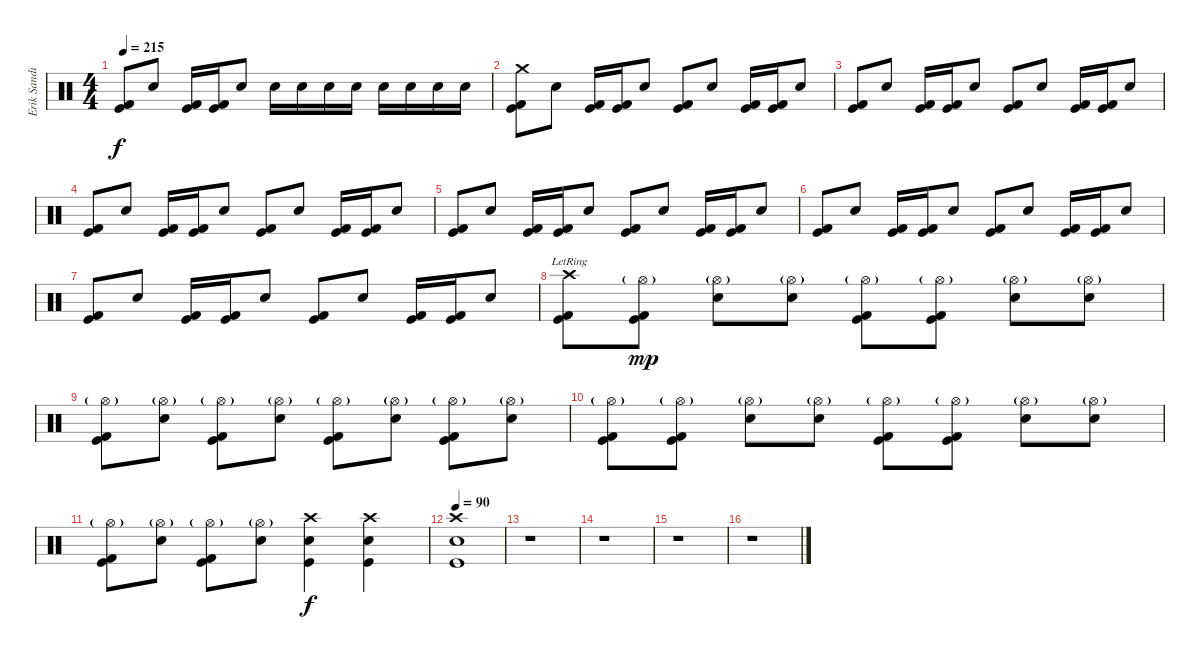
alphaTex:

\track ("Erik Sandin" "Erik Sandi") {instrument percussion}
\staff {score}
\articulation defaults
\ts (4 4)
\tempo 215
\clef neutral
\ks c
("Kick (hit) 2" "Kick (hit)").8{dy f} "Electric Snare (hit)".8 ("Kick (hit) 2" "Kick (hit)").16 ("Kick (hit) 2" "Kick (hit)").16 "Electric Snare (hit)".8 "Electric Snare (hit)".16 "Electric Snare (hit)".16 "Electric Snare (hit)".16 "Electric Snare (hit)".16 "Electric Snare (hit)".16 "Electric Snare (hit)".16 "Electric Snare (hit)".16 "Electric Snare (hit)".16 |
("Crash medium (hit)" "Kick (hit) 2" "Kick (hit)").8 "Electric Snare (hit)".8 ("Kick (hit) 2" "Kick (hit)").16 ("Kick (hit) 2" "Kick (hit)").16 "Electric Snare (hit)".8 ("Kick (hit) 2" "Kick (hit)").8 "Electric Snare (hit)".8 ("Kick (hit) 2" "Kick (hit)").16 ("Kick (hit) 2" "Kick (hit)").16 "Electric Snare (hit)".8 |
("Kick (hit) 2" "Kick (hit)").8 "Electric Snare (hit)".8 ("Kick (hit) 2" "Kick (hit)").16 ("Kick (hit) 2" "Kick (hit)").16 "Electric Snare (hit)".8 ("Kick (hit) 2" "Kick (hit)").8 "Electric Snare (hit)".8 ("Kick (hit) 2" "Kick (hit)").16 ("Kick (hit) 2" "Kick (hit)").16 "Electric Snare (hit)".8 |
("Kick (hit) 2" "Kick (hit)").8 "Electric Snare (hit)".8 ("Kick (hit) 2" "Kick (hit)").16 ("Kick (hit) 2" "Kick (hit)").16 "Electric Snare (hit)".8 ("Kick (hit) 2" "Kick (hit)").8 "Electric Snare (hit)".8 ("Kick (hit) 2" "Kick (hit)").16 ("Kick (hit) 2" "Kick (hit)").16 "Electric Snare (hit)".8 |
("Kick (hit) 2" "Kick (hit)").8 "Electric Snare (hit)".8 ("Kick (hit) 2" "Kick (hit)").16 ("Kick (hit) 2" "Kick (hit)").16 "Electric Snare (hit)".8 ("Kick (hit) 2" "Kick (hit)").8 "Electric Snare (hit)".8 ("Kick (hit) 2" "Kick (hit)").16 ("Kick (hit) 2" "Kick (hit)").16 "Electric Snare (hit)".8 |
("Kick (hit) 2" "Kick (hit)").8 "Electric Snare (hit)".8 ("Kick (hit) 2" "Kick (hit)").16 ("Kick (hit) 2" "Kick (hit)").16 "Electric Snare (hit)".8 ("Kick (hit) 2" "Kick (hit)").8 "Electric Snare (hit)".8 ("Kick (hit) 2" "Kick (hit)").16 ("Kick (hit) 2" "Kick (hit)").16 "Electric Snare (hit)".8 |
("Kick (hit) 2" "Kick (hit)").8 "Electric Snare (hit)".8 ("Kick (hit) 2" "Kick (hit)").16 ("Kick (hit) 2" "Kick (hit)").16 "Electric Snare (hit)".8 ("Kick (hit) 2" "Kick (hit)").8 "Electric Snare (hit)".8 ("Kick (hit) 2" "Kick (hit)").16 ("Kick (hit) 2" "Kick (hit)").16 "Electric Snare (hit)".8 |
("Crash high (hit)"{lr} "Kick (hit) 2" "Kick (hit)").8 ("Hi-Hat (open)"{g} "Kick (hit) 2" "Kick (hit)").8{dy mp} ("Hi-Hat (open)"{g} "Electric Snare (hit)").8 ("Hi-Hat (open)"{g} "Electric Snare (hit)").8 ("Hi-Hat (open)"{g} "Kick (hit) 2" "Kick (hit)").8 ("Hi-Hat (open)"{g} "Kick (hit) 2" "Kick (hit)").8 ("Hi-Hat (open)"{g} "Electric Snare (hit)").8 ("Hi-Hat (open)"{g} "Electric Snare (hit)").8 |
("Hi-Hat (open)"{g} "Kick (hit) 2" "Kick (hit)").8 ("Hi-Hat (open)"{g} "Electric Snare (hit)").8 ("Hi-Hat (open)"{g} "Kick (hit) 2" "Kick (hit)").8 ("Hi-Hat (open)"{g} "Electric Snare (hit)").8 ("Hi-Hat (open)"{g} "Kick (hit) 2" "Kick (hit)").8 ("Hi-Hat (open)"{g} "Electric Snare (hit)").8 ("Hi-Hat (open)"{g} "Kick (hit) 2" "Kick (hit)").8 ("Hi-Hat (open)"{g} "Electric Snare (hit)").8 |
("Hi-Hat (open)"{g} "Kick (hit) 2" "Kick (hit)").8 ("Hi-Hat (open)"{g} "Kick (hit) 2" "Kick (hit)").8 ("Hi-Hat (open)"{g} "Electric Snare (hit)").8 ("Hi-Hat (open)"{g} "Electric Snare (hit)").8 ("Hi-Hat (open)"{g} "Kick (hit) 2" "Kick (hit)").8 ("Hi-Hat (open)"{g} "Kick (hit) 2" "Kick (hit)").8 ("Hi-Hat (open)"{g} "Electric Snare (hit)").8 ("Hi-Hat (open)"{g} "Electric Snare (hit)").8 |
("Hi-Hat (open)"{g} "Kick (hit) 2" "Kick (hit)").8 ("Hi-Hat (open)"{g} "Electric Snare (hit)").8 ("Hi-Hat (open)"{g} "Kick (hit) 2" "Kick (hit)").8 ("Hi-Hat (open)"{g} "Electric Snare (hit)").8 ("Crash high (hit)" "Electric Snare (hit)" "Kick (hit)").4{dy f} ("Crash high (hit)" "Electric Snare (hit)" "Kick (hit)").4 |
\tempo 90
("Crash high (hit)" "Electric Snare (hit)" "Kick (hit)").1 |
r.1 |
r.1 |
r.1 |
r.1
